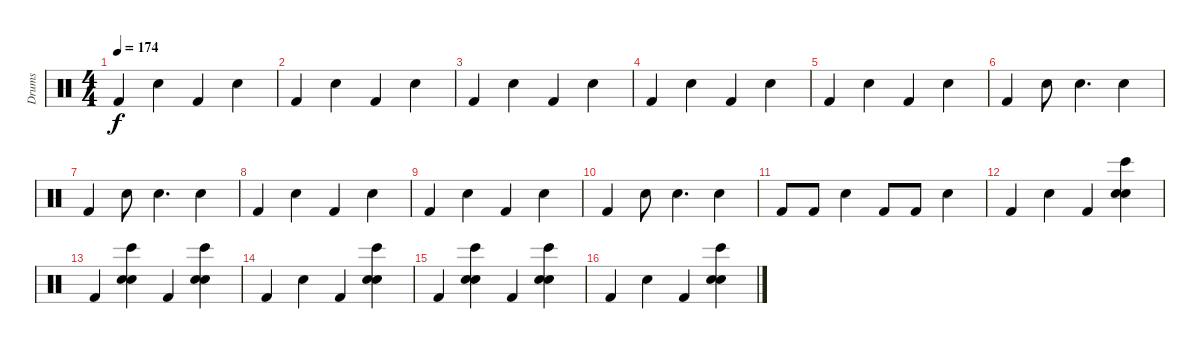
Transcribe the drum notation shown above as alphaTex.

\track ("Drums" "Drums") {instrument percussion}
\staff {score}
\articulation defaults
\ts (4 4)
\tempo 174
\clef neutral
\ks c "Kick (hit) 2".4{dy f} "Electric Snare (hit)".4 "Kick (hit) 2".4 "Electric Snare (hit)".4
|
"Kick (hit) 2".4 "Electric Snare (hit)".4 "Kick (hit) 2".4 "Electric Snare (hit)".4 |
"Kick (hit) 2".4 "Electric Snare (hit)".4 "Kick (hit) 2".4 "Electric Snare (hit)".4 |
"Kick (hit) 2".4 "Electric Snare (hit)".4 "Kick (hit) 2".4 "Electric Snare (hit)".4 |
"Kick (hit) 2".4 "Electric Snare (hit)".4 "Kick (hit) 2".4 "Electric Snare (hit)".4 |
"Kick (hit) 2".4 "Electric Snare (hit)".8 "Electric Snare (hit)".4{d} "Electric Snare (hit)".4 |
"Kick (hit) 2".4 "Electric Snare (hit)".8 "Electric Snare (hit)".4{d} "Electric Snare (hit)".4 |
"Kick (hit) 2".4 "Electric Snare (hit)".4 "Kick (hit) 2".4 "Electric Snare (hit)".4 |
"Kick (hit) 2".4 "Electric Snare (hit)".4 "Kick (hit) 2".4 "Electric Snare (hit)".4 |
"Kick (hit) 2".4 "Electric Snare (hit)".8 "Electric Snare (hit)".4{d} "Electric Snare (hit)".4 |
"Kick (hit) 2".8 "Kick (hit) 2".8 "Electric Snare (hit)".4 "Kick (hit) 2".8 "Kick (hit) 2".8 "Electric Snare (hit)".4 |
"Kick (hit) 2".4 "Electric Snare (hit)".4 "Kick (hit) 2".4 ("Electric Snare (hit)" "Hand Clap (hit)" "Bongo High (hit)").4 |
"Kick (hit) 2".4 ("Electric Snare (hit)" "Hand Clap (hit)" "Bongo High (hit)").4 "Kick (hit) 2".4 ("Electric Snare (hit)" "Hand Clap (hit)" "Bongo High (hit)").4 |
"Kick (hit) 2".4 "Electric Snare (hit)".4 "Kick (hit) 2".4 ("Electric Snare (hit)" "Hand Clap (hit)" "Bongo High (hit)").4 |
"Kick (hit) 2".4 ("Electric Snare (hit)" "Hand Clap (hit)" "Bongo High (hit)").4 "Kick (hit) 2".4 ("Electric Snare (hit)" "Hand Clap (hit)" "Bongo High (hit)").4 |
"Kick (hit) 2".4 "Electric Snare (hit)".4 "Kick (hit) 2".4 ("Electric Snare (hit)" "Hand Clap (hit)" "Bongo High (hit)").4
